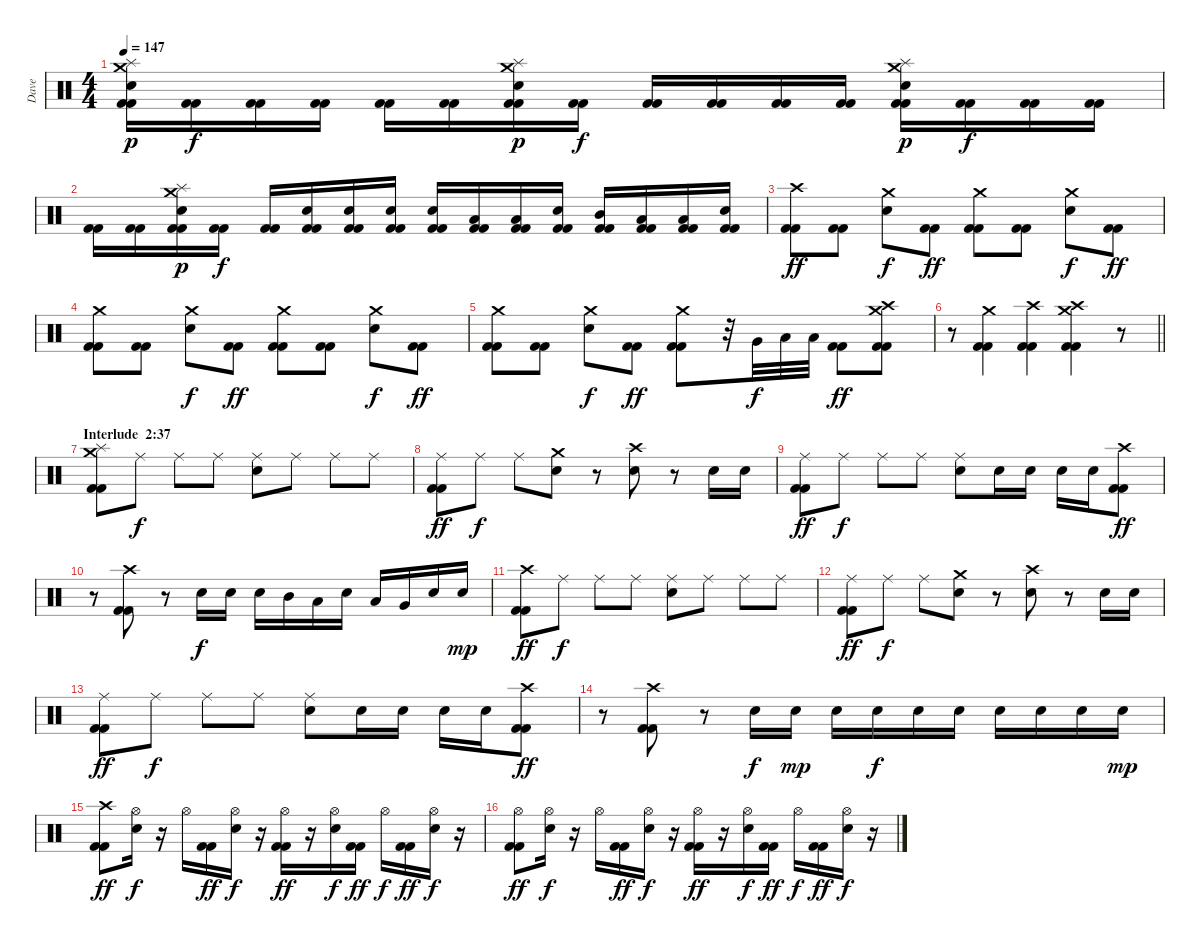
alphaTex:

\track ("Dave" "Dave") {instrument percussion}
\staff {score}
\articulation defaults
\ts (4 4)
\tempo 147
\clef neutral
\ks c
("Splash (hit)" "Crash medium (hit)" "Electric Snare (hit)" "Kick (hit) 2" "Kick (hit) 2").16{dy p} ("Kick (hit) 2" "Kick (hit) 2").16{dy f} ("Kick (hit) 2" "Kick (hit) 2").16 ("Kick (hit) 2" "Kick (hit) 2").16 ("Kick (hit) 2" "Kick (hit) 2").16 ("Kick (hit) 2" "Kick (hit) 2").16 ("Splash (hit)" "Crash medium (hit)" "Electric Snare (hit)" "Kick (hit) 2" "Kick (hit) 2").16{dy p} ("Kick (hit) 2" "Kick (hit) 2").16{dy f} ("Kick (hit) 2" "Kick (hit) 2").16 ("Kick (hit) 2" "Kick (hit) 2").16 ("Kick (hit) 2" "Kick (hit) 2").16 ("Kick (hit) 2" "Kick (hit) 2").16 ("Splash (hit)" "Crash medium (hit)" "Electric Snare (hit)" "Kick (hit) 2" "Kick (hit) 2").16{dy p} ("Kick (hit) 2" "Kick (hit) 2").16{dy f} ("Kick (hit) 2" "Kick (hit) 2").16 ("Kick (hit) 2" "Kick (hit) 2").16 |
("Kick (hit) 2" "Kick (hit) 2").16 ("Kick (hit) 2" "Kick (hit) 2").16 ("Splash (hit)" "Crash medium (hit)" "Electric Snare (hit)" "Kick (hit) 2" "Kick (hit) 2").16{dy p} ("Kick (hit) 2" "Kick (hit) 2").16{dy f} ("Kick (hit) 2" "Kick (hit) 2").16 ("Electric Snare (hit)" "Kick (hit) 2" "Kick (hit) 2").16 ("Electric Snare (hit)" "Kick (hit) 2" "Kick (hit) 2").16 ("Electric Snare (hit)" "Kick (hit) 2" "Kick (hit) 2").16 ("Electric Snare (hit)" "Kick (hit) 2" "Kick (hit) 2").16 ("Low Tom (hit)" "Kick (hit) 2" "Kick (hit) 2").16 ("Low Tom (hit)" "Kick (hit) 2" "Kick (hit) 2").16 ("Electric Snare (hit)" "Kick (hit) 2" "Kick (hit) 2").16 ("Mid Tom (hit)" "Kick (hit) 2" "Kick (hit) 2").16 ("Low Tom (hit)" "Kick (hit) 2" "Kick (hit) 2").16 ("Low Floor Tom (hit)" "Kick (hit) 2" "Kick (hit) 2").16 ("Electric Snare (hit)" "Kick (hit) 2" "Kick (hit) 2").16 |
("Crash high (hit)" "Kick (hit) 2" "Kick (hit) 2").8{dy ff} ("Kick (hit) 2" "Kick (hit) 2").8 ("Crash medium (hit)" "Electric Snare (hit)").8{dy f} ("Kick (hit) 2" "Kick (hit) 2").8{dy ff} ("Crash medium (hit)" "Kick (hit) 2" "Kick (hit) 2").8 ("Kick (hit) 2" "Kick (hit) 2").8 ("Crash medium (hit)" "Electric Snare (hit)").8{dy f} ("Kick (hit) 2" "Kick (hit) 2").8{dy ff} |
("Crash medium (hit)" "Kick (hit) 2" "Kick (hit) 2").8 ("Kick (hit) 2" "Kick (hit) 2").8 ("Crash medium (hit)" "Electric Snare (hit)").8{dy f} ("Kick (hit) 2" "Kick (hit) 2").8{dy ff} ("Crash medium (hit)" "Kick (hit) 2" "Kick (hit) 2").8 ("Kick (hit) 2" "Kick (hit) 2").8 ("Crash medium (hit)" "Electric Snare (hit)").8{dy f} ("Kick (hit) 2" "Kick (hit) 2").8{dy ff} |
("Crash medium (hit)" "Kick (hit) 2" "Kick (hit) 2").8 ("Kick (hit) 2" "Kick (hit) 2").8 ("Crash medium (hit)" "Electric Snare (hit)").8{dy f} ("Kick (hit) 2" "Kick (hit) 2").8{dy ff} ("Crash medium (hit)" "Kick (hit) 2" "Kick (hit) 2").8 r.32 "Very Low Tom (hit)".32{dy f} "Low Floor Tom (hit)".32 "Low Floor Tom (hit)".32 ("Kick (hit) 2" "Kick (hit) 2").8{dy ff} ("Crash medium (hit)" "Crash high (hit)" "Kick (hit) 2" "Kick (hit) 2").8 |
\barLineRight lightlight
r.8 ("Crash medium (hit)" "Kick (hit) 2" "Kick (hit) 2").4 ("Crash high (hit)" "Kick (hit) 2" "Kick (hit) 2").4 ("Crash medium (hit)" "Crash high (hit)" "Kick (hit) 2" "Kick (hit) 2").4 r.8 |
\section ("" "Interlude  2:37")
("Splash (hit)" "Crash medium (hit)" "Kick (hit) 2" "Kick (hit) 2").8 "Ride (middle)".8{dy f} "Ride (middle)".8 "Ride (middle)".8 ("Ride (middle)" "Electric Snare (hit)").8 "Ride (middle)".8 "Ride (middle)".8 "Ride (middle)".8 |
("Ride (middle)" "Kick (hit) 2" "Kick (hit) 2").8{dy ff} "Ride (middle)".8{dy f} "Ride (middle)".8 ("Crash medium (hit)" "Electric Snare (hit)").8 r.8 ("Crash high (hit)" "Electric Snare (hit)").8 r.8 "Electric Snare (hit)".16 "Electric Snare (hit)".16 |
("Ride (middle)" "Kick (hit) 2" "Kick (hit) 2").8{dy ff} "Ride (middle)".8{dy f} "Ride (middle)".8 "Ride (middle)".8 ("Ride (middle)" "Electric Snare (hit)").8 "Electric Snare (hit)".16 "Electric Snare (hit)".16 "Electric Snare (hit)".16 "Electric Snare (hit)".16 ("Crash high (hit)" "Kick (hit) 2" "Kick (hit) 2").8{dy ff} |
r.8 ("Crash high (hit)" "Kick (hit) 2" "Kick (hit) 2").8 r.8 "Electric Snare (hit)".16{dy f} "Electric Snare (hit)".16 "Electric Snare (hit)".16 "Mid Tom (hit)".16 "Low Tom (hit)".16 "Electric Snare (hit)".16 "Low Tom (hit)".16 "Very Low Tom (hit)".16 "Electric Snare (hit)".16 "Electric Snare (hit)".16{dy mp} |
("Crash high (hit)" "Kick (hit) 2" "Kick (hit) 2").8{dy ff} "Ride (middle)".8{dy f} "Ride (middle)".8 "Ride (middle)".8 ("Ride (middle)" "Electric Snare (hit)").8 "Ride (middle)".8 "Ride (middle)".8 "Ride (middle)".8 |
("Ride (middle)" "Kick (hit) 2" "Kick (hit) 2").8{dy ff} "Ride (middle)".8{dy f} "Ride (middle)".8 ("Crash medium (hit)" "Electric Snare (hit)").8 r.8 ("Crash high (hit)" "Electric Snare (hit)").8 r.8 "Electric Snare (hit)".16 "Electric Snare (hit)".16 |
("Ride (middle)" "Kick (hit) 2" "Kick (hit) 2").8{dy ff} "Ride (middle)".8{dy f} "Ride (middle)".8 "Ride (middle)".8 ("Ride (middle)" "Electric Snare (hit)").8 "Electric Snare (hit)".16 "Electric Snare (hit)".16 "Electric Snare (hit)".16 "Electric Snare (hit)".16 ("Crash high (hit)" "Kick (hit) 2" "Kick (hit) 2").8{dy ff} |
r.8 ("Crash high (hit)" "Kick (hit) 2" "Kick (hit) 2").8 r.8 "Electric Snare (hit)".16{dy f} "Electric Snare (hit)".16{dy mp} "Electric Snare (hit)".16 "Electric Snare (hit)".16{dy f} "Electric Snare (hit)".16 "Electric Snare (hit)".16 "Electric Snare (hit)".16 "Electric Snare (hit)".16 "Electric Snare (hit)".16 "Electric Snare (hit)".16{dy mp} |
("Crash high (hit)" "Kick (hit) 2" "Kick (hit) 2").8{dy ff} ("Hi-Hat (open)" "Electric Snare (hit)").16{dy f} r.16 "Hi-Hat (open)".16 ("Kick (hit) 2" "Kick (hit) 2").16{dy ff} ("Hi-Hat (open)" "Electric Snare (hit)").16{dy f} r.16 ("Hi-Hat (open)" "Kick (hit) 2" "Kick (hit) 2").16{dy ff} r.16 ("Hi-Hat (open)" "Electric Snare (hit)").16{dy f} ("Kick (hit) 2" "Kick (hit) 2").16{dy ff} "Hi-Hat (open)".16{dy f} ("Kick (hit) 2" "Kick (hit) 2").16{dy ff} ("Hi-Hat (open)" "Electric Snare (hit)").16{dy f} r.16 |
("Hi-Hat (open)" "Kick (hit) 2" "Kick (hit) 2").8{dy ff} ("Hi-Hat (open)" "Electric Snare (hit)").16{dy f} r.16 "Hi-Hat (open)".16 ("Kick (hit) 2" "Kick (hit) 2").16{dy ff} ("Hi-Hat (open)" "Electric Snare (hit)").16{dy f} r.16 ("Hi-Hat (open)" "Kick (hit) 2" "Kick (hit) 2").16{dy ff} r.16 ("Hi-Hat (open)" "Electric Snare (hit)").16{dy f} ("Kick (hit) 2" "Kick (hit) 2").16{dy ff} "Hi-Hat (open)".16{dy f} ("Kick (hit) 2" "Kick (hit) 2").16{dy ff} ("Hi-Hat (open)" "Electric Snare (hit)").16{dy f} r.16
